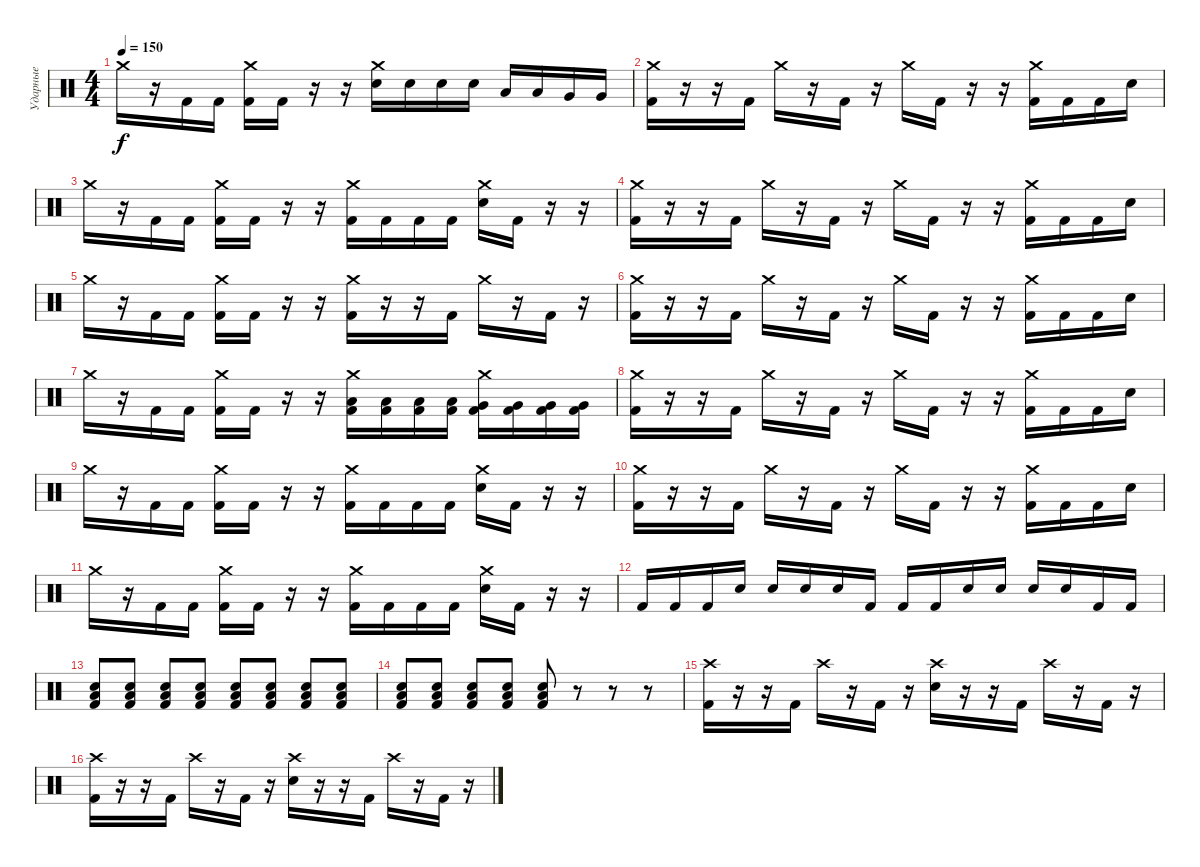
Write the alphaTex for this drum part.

\track ("Ударные" "Ударные") {instrument percussion}
\staff {score}
\articulation defaults
\ts (4 4)
\tempo 150
\clef neutral
\ks c "Crash medium (hit)".16{dy f}
r.16 "Kick (hit) 2".16 "Kick (hit) 2".16 ("Crash medium (hit)" "Kick (hit) 2").16 "Kick (hit) 2".16 r.16 r.16 ("Crash medium (hit)" "Electric Snare (hit)").16 "Electric Snare (hit)".16 "Electric Snare (hit)".16 "Electric Snare (hit)".16 "Low Tom (hit)".16 "Low Tom (hit)".16 "Very Low Tom (hit)".16 "Very Low Tom (hit)".16 |
("Crash medium (hit)" "Kick (hit) 2").16 r.16 r.16 "Kick (hit) 2".16 "Crash medium (hit)".16 r.16 "Kick (hit) 2".16 r.16 "Crash medium (hit)".16 "Kick (hit) 2".16 r.16 r.16 ("Crash medium (hit)" "Kick (hit) 2").16 "Kick (hit) 2".16 "Kick (hit) 2".16 "Electric Snare (hit)".16 |
"Crash medium (hit)".16 r.16 "Kick (hit) 2".16 "Kick (hit) 2".16 ("Crash medium (hit)" "Kick (hit) 2").16 "Kick (hit) 2".16 r.16 r.16 ("Crash medium (hit)" "Kick (hit) 2").16 "Kick (hit) 2".16 "Kick (hit) 2".16 "Kick (hit) 2".16 ("Crash medium (hit)" "Electric Snare (hit)").16 "Kick (hit) 2".16 r.16 r.16 |
("Crash medium (hit)" "Kick (hit) 2").16 r.16 r.16 "Kick (hit) 2".16 "Crash medium (hit)".16 r.16 "Kick (hit) 2".16 r.16 "Crash medium (hit)".16 "Kick (hit) 2".16 r.16 r.16 ("Crash medium (hit)" "Kick (hit) 2").16 "Kick (hit) 2".16 "Kick (hit) 2".16 "Electric Snare (hit)".16 |
"Crash medium (hit)".16 r.16 "Kick (hit) 2".16 "Kick (hit) 2".16 ("Crash medium (hit)" "Kick (hit) 2").16 "Kick (hit) 2".16 r.16 r.16 ("Crash medium (hit)" "Kick (hit) 2").16 r.16 r.16 "Kick (hit) 2".16 "Crash medium (hit)".16 r.16 "Kick (hit) 2".16 r.16 |
("Crash medium (hit)" "Kick (hit) 2").16 r.16 r.16 "Kick (hit) 2".16 "Crash medium (hit)".16 r.16 "Kick (hit) 2".16 r.16 "Crash medium (hit)".16 "Kick (hit) 2".16 r.16 r.16 ("Crash medium (hit)" "Kick (hit) 2").16 "Kick (hit) 2".16 "Kick (hit) 2".16 "Electric Snare (hit)".16 |
"Crash medium (hit)".16 r.16 "Kick (hit) 2".16 "Kick (hit) 2".16 ("Crash medium (hit)" "Kick (hit) 2").16 "Kick (hit) 2".16 r.16 r.16 ("Crash medium (hit)" "Low Tom (hit)" "Kick (hit) 2").16 ("Low Tom (hit)" "Kick (hit) 2").16 ("Low Tom (hit)" "Kick (hit) 2").16 ("Low Tom (hit)" "Kick (hit) 2").16 ("Crash medium (hit)" "Very Low Tom (hit)" "Kick (hit) 2").16 ("Very Low Tom (hit)" "Kick (hit) 2").16 ("Very Low Tom (hit)" "Kick (hit) 2").16 ("Very Low Tom (hit)" "Kick (hit) 2").16 |
("Crash medium (hit)" "Kick (hit) 2").16 r.16 r.16 "Kick (hit) 2".16 "Crash medium (hit)".16 r.16 "Kick (hit) 2".16 r.16 "Crash medium (hit)".16 "Kick (hit) 2".16 r.16 r.16 ("Crash medium (hit)" "Kick (hit) 2").16 "Kick (hit) 2".16 "Kick (hit) 2".16 "Electric Snare (hit)".16 |
"Crash medium (hit)".16 r.16 "Kick (hit) 2".16 "Kick (hit) 2".16 ("Crash medium (hit)" "Kick (hit) 2").16 "Kick (hit) 2".16 r.16 r.16 ("Crash medium (hit)" "Kick (hit) 2").16 "Kick (hit) 2".16 "Kick (hit) 2".16 "Kick (hit) 2".16 ("Crash medium (hit)" "Electric Snare (hit)").16 "Kick (hit) 2".16 r.16 r.16 |
("Crash medium (hit)" "Kick (hit) 2").16 r.16 r.16 "Kick (hit) 2".16 "Crash medium (hit)".16 r.16 "Kick (hit) 2".16 r.16 "Crash medium (hit)".16 "Kick (hit) 2".16 r.16 r.16 ("Crash medium (hit)" "Kick (hit) 2").16 "Kick (hit) 2".16 "Kick (hit) 2".16 "Electric Snare (hit)".16 |
"Crash medium (hit)".16 r.16 "Kick (hit) 2".16 "Kick (hit) 2".16 ("Crash medium (hit)" "Kick (hit) 2").16 "Kick (hit) 2".16 r.16 r.16 ("Crash medium (hit)" "Kick (hit) 2").16 "Kick (hit) 2".16 "Kick (hit) 2".16 "Kick (hit) 2".16 ("Crash medium (hit)" "Electric Snare (hit)").16 "Kick (hit) 2".16 r.16 r.16 |
"Kick (hit) 2".16 "Kick (hit) 2".16 "Kick (hit) 2".16 "Electric Snare (hit)".16 "Electric Snare (hit)".16 "Electric Snare (hit)".16 "Electric Snare (hit)".16 "Kick (hit) 2".16 "Kick (hit) 2".16 "Kick (hit) 2".16 "Electric Snare (hit)".16 "Electric Snare (hit)".16 "Electric Snare (hit)".16 "Electric Snare (hit)".16 "Kick (hit) 2".16 "Kick (hit) 2".16 |
("Low Floor Tom (hit)" "Electric Snare (hit)" "Kick (hit) 2").8 ("Low Floor Tom (hit)" "Electric Snare (hit)" "Kick (hit) 2").8 ("Low Floor Tom (hit)" "Electric Snare (hit)" "Kick (hit) 2").8 ("Low Floor Tom (hit)" "Electric Snare (hit)" "Kick (hit) 2").8 ("Low Floor Tom (hit)" "Electric Snare (hit)" "Kick (hit) 2").8 ("Low Floor Tom (hit)" "Electric Snare (hit)" "Kick (hit) 2").8 ("Low Floor Tom (hit)" "Electric Snare (hit)" "Kick (hit) 2").8 ("Low Floor Tom (hit)" "Electric Snare (hit)" "Kick (hit) 2").8 |
("Low Floor Tom (hit)" "Electric Snare (hit)" "Kick (hit) 2").8 ("Low Floor Tom (hit)" "Electric Snare (hit)" "Kick (hit) 2").8 ("Low Floor Tom (hit)" "Electric Snare (hit)" "Kick (hit) 2").8 ("Low Floor Tom (hit)" "Electric Snare (hit)" "Kick (hit) 2").8 ("Low Floor Tom (hit)" "Electric Snare (hit)" "Kick (hit) 2").8 r.8 r.8 r.8 |
("Crash high (hit)" "Kick (hit) 2").16 r.16 r.16 "Kick (hit) 2".16 "Crash high (hit)".16 r.16 "Kick (hit) 2".16 r.16 ("Crash high (hit)" "Electric Snare (hit)").16 r.16 r.16 "Kick (hit) 2".16 "Crash high (hit)".16 r.16 "Kick (hit) 2".16 r.16 |
("Crash high (hit)" "Kick (hit) 2").16 r.16 r.16 "Kick (hit) 2".16 "Crash high (hit)".16 r.16 "Kick (hit) 2".16 r.16 ("Crash high (hit)" "Electric Snare (hit)").16 r.16 r.16 "Kick (hit) 2".16 "Crash high (hit)".16 r.16 "Kick (hit) 2".16 r.16
